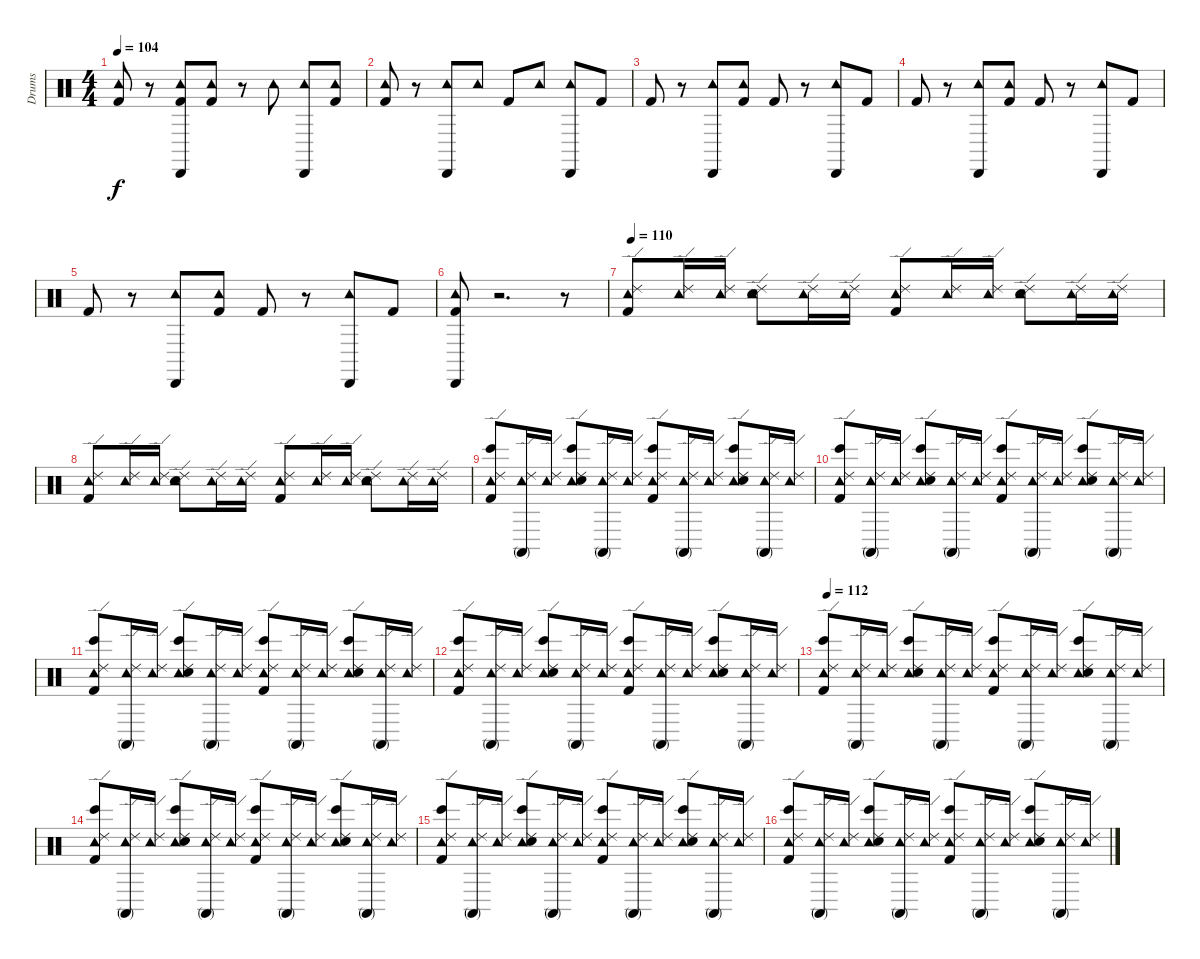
\track ("Drums" "Drums") {instrument percussion}
\staff {score}
\articulation defaults
\ts (4 4)
\tempo 104
\clef neutral
\ks c
("Kick (hit) 2" "Tambourine (hit)").8{dy f} r.8 ("Kick (hit) 2" "Cabasa (hit)" "Tambourine (hit)").8 ("Kick (hit) 2" "Tambourine (hit)").8 r.8 "Tambourine (hit)".8 ("Cabasa (hit)" "Tambourine (hit)").8 ("Kick (hit) 2" "Tambourine (hit)").8 |
("Kick (hit) 2" "Tambourine (hit)").8 r.8 ("Cabasa (hit)" "Tambourine (hit)").8 "Tambourine (hit)".8 "Kick (hit) 2".8 "Tambourine (hit)".8 ("Cabasa (hit)" "Tambourine (hit)").8 "Kick (hit) 2".8 |
"Kick (hit) 2".8 r.8 ("Tambourine (hit)" "Cabasa (hit)").8 ("Tambourine (hit)" "Kick (hit) 2").8 "Kick (hit) 2".8 r.8 ("Tambourine (hit)" "Cabasa (hit)").8 "Kick (hit) 2".8 |
"Kick (hit) 2".8 r.8 ("Tambourine (hit)" "Cabasa (hit)").8 ("Tambourine (hit)" "Kick (hit) 2").8 "Kick (hit) 2".8 r.8 ("Tambourine (hit)" "Cabasa (hit)").8 "Kick (hit) 2".8 |
"Kick (hit) 2".8 r.8 ("Tambourine (hit)" "Cabasa (hit)").8 ("Tambourine (hit)" "Kick (hit) 2").8 "Kick (hit) 2".8 r.8 ("Tambourine (hit)" "Cabasa (hit)").8 "Kick (hit) 2".8 |
("Cabasa (hit)" "Kick (hit) 2" "Tambourine (hit)").8 r.2{d} r.8 |
\tempo 110
("Ride (edge) 2" "Tambourine (hit)" "Kick (hit) 2").8 ("Ride (edge) 2" "Tambourine (hit)").16 ("Ride (edge) 2" "Tambourine (hit)").16 ("Ride (edge) 2" "Tambourine (hit)" "Snare (hit) 2").8 ("Ride (edge) 2" "Tambourine (hit)").16 ("Ride (edge) 2" "Tambourine (hit)").16 ("Ride (edge) 2" "Tambourine (hit)" "Kick (hit) 2").8 ("Ride (edge) 2" "Tambourine (hit)").16 ("Ride (edge) 2" "Tambourine (hit)").16 ("Ride (edge) 2" "Tambourine (hit)" "Snare (hit) 2").8 ("Ride (edge) 2" "Tambourine (hit)").16 ("Ride (edge) 2" "Tambourine (hit)").16 |
("Ride (edge) 2" "Tambourine (hit)" "Kick (hit) 2").8 ("Ride (edge) 2" "Tambourine (hit)").16 ("Ride (edge) 2" "Tambourine (hit)").16 ("Ride (edge) 2" "Tambourine (hit)" "Snare (hit) 2").8 ("Ride (edge) 2" "Tambourine (hit)").16 ("Ride (edge) 2" "Tambourine (hit)").16 ("Ride (edge) 2" "Tambourine (hit)" "Kick (hit) 2").8 ("Ride (edge) 2" "Tambourine (hit)").16 ("Ride (edge) 2" "Tambourine (hit)").16 ("Ride (edge) 2" "Tambourine (hit)" "Snare (hit) 2").8 ("Ride (edge) 2" "Tambourine (hit)").16 ("Ride (edge) 2" "Tambourine (hit)").16 |
("Ride (edge) 2" "Tambourine (hit)" "Kick (hit) 2" "Bongo High (hit)").8 ("Ride (edge) 2" "Tambourine (hit)" "Conga high (mute)").16 ("Ride (edge) 2" "Tambourine (hit)").16 ("Ride (edge) 2" "Tambourine (hit)" "Snare (hit) 2" "Bongo High (hit)").8 ("Ride (edge) 2" "Tambourine (hit)" "Conga high (mute)").16 ("Ride (edge) 2" "Tambourine (hit)").16 ("Ride (edge) 2" "Tambourine (hit)" "Kick (hit) 2" "Bongo High (hit)").8 ("Ride (edge) 2" "Tambourine (hit)" "Conga high (mute)").16 ("Ride (edge) 2" "Tambourine (hit)").16 ("Ride (edge) 2" "Tambourine (hit)" "Snare (hit) 2" "Bongo High (hit)").8 ("Ride (edge) 2" "Tambourine (hit)" "Conga high (mute)").16 ("Ride (edge) 2" "Tambourine (hit)").16 |
("Ride (edge) 2" "Tambourine (hit)" "Kick (hit) 2" "Bongo High (hit)").8 ("Ride (edge) 2" "Tambourine (hit)" "Conga high (mute)").16 ("Ride (edge) 2" "Tambourine (hit)").16 ("Ride (edge) 2" "Tambourine (hit)" "Snare (hit) 2" "Bongo High (hit)").8 ("Ride (edge) 2" "Tambourine (hit)" "Conga high (mute)").16 ("Ride (edge) 2" "Tambourine (hit)").16 ("Ride (edge) 2" "Tambourine (hit)" "Kick (hit) 2" "Bongo High (hit)").8 ("Ride (edge) 2" "Tambourine (hit)" "Conga high (mute)").16 ("Ride (edge) 2" "Tambourine (hit)").16 ("Ride (edge) 2" "Tambourine (hit)" "Snare (hit) 2" "Bongo High (hit)").8 ("Ride (edge) 2" "Tambourine (hit)" "Conga high (mute)").16 ("Ride (edge) 2" "Tambourine (hit)").16 |
("Ride (edge) 2" "Tambourine (hit)" "Kick (hit) 2" "Bongo High (hit)").8 ("Ride (edge) 2" "Tambourine (hit)" "Conga high (mute)").16 ("Ride (edge) 2" "Tambourine (hit)").16 ("Ride (edge) 2" "Tambourine (hit)" "Snare (hit) 2" "Bongo High (hit)").8 ("Ride (edge) 2" "Tambourine (hit)" "Conga high (mute)").16 ("Ride (edge) 2" "Tambourine (hit)").16 ("Ride (edge) 2" "Tambourine (hit)" "Kick (hit) 2" "Bongo High (hit)").8 ("Ride (edge) 2" "Tambourine (hit)" "Conga high (mute)").16 ("Ride (edge) 2" "Tambourine (hit)").16 ("Ride (edge) 2" "Tambourine (hit)" "Snare (hit) 2" "Bongo High (hit)").8 ("Ride (edge) 2" "Tambourine (hit)" "Conga high (mute)").16 ("Ride (edge) 2" "Tambourine (hit)").16 |
("Ride (edge) 2" "Tambourine (hit)" "Kick (hit) 2" "Bongo High (hit)").8 ("Ride (edge) 2" "Tambourine (hit)" "Conga high (mute)").16 ("Ride (edge) 2" "Tambourine (hit)").16 ("Ride (edge) 2" "Tambourine (hit)" "Snare (hit) 2" "Bongo High (hit)").8 ("Ride (edge) 2" "Tambourine (hit)" "Conga high (mute)").16 ("Ride (edge) 2" "Tambourine (hit)").16 ("Ride (edge) 2" "Tambourine (hit)" "Kick (hit) 2" "Bongo High (hit)").8 ("Ride (edge) 2" "Tambourine (hit)" "Conga high (mute)").16 ("Ride (edge) 2" "Tambourine (hit)").16 ("Ride (edge) 2" "Tambourine (hit)" "Snare (hit) 2" "Bongo High (hit)").8 ("Ride (edge) 2" "Tambourine (hit)" "Conga high (mute)").16 ("Ride (edge) 2" "Tambourine (hit)").16 |
\tempo 112
("Ride (edge) 2" "Tambourine (hit)" "Kick (hit) 2" "Bongo High (hit)").8 ("Ride (edge) 2" "Tambourine (hit)" "Conga high (mute)").16 ("Ride (edge) 2" "Tambourine (hit)").16 ("Ride (edge) 2" "Tambourine (hit)" "Snare (hit) 2" "Bongo High (hit)").8 ("Ride (edge) 2" "Tambourine (hit)" "Conga high (mute)").16 ("Ride (edge) 2" "Tambourine (hit)").16 ("Ride (edge) 2" "Tambourine (hit)" "Kick (hit) 2" "Bongo High (hit)").8 ("Ride (edge) 2" "Tambourine (hit)" "Conga high (mute)").16 ("Ride (edge) 2" "Tambourine (hit)").16 ("Ride (edge) 2" "Tambourine (hit)" "Snare (hit) 2" "Bongo High (hit)").8 ("Ride (edge) 2" "Tambourine (hit)" "Conga high (mute)").16 ("Ride (edge) 2" "Tambourine (hit)").16 |
("Ride (edge) 2" "Tambourine (hit)" "Kick (hit) 2" "Bongo High (hit)").8 ("Ride (edge) 2" "Tambourine (hit)" "Conga high (mute)").16 ("Ride (edge) 2" "Tambourine (hit)").16 ("Ride (edge) 2" "Tambourine (hit)" "Snare (hit) 2" "Bongo High (hit)").8 ("Ride (edge) 2" "Tambourine (hit)" "Conga high (mute)").16 ("Ride (edge) 2" "Tambourine (hit)").16 ("Ride (edge) 2" "Tambourine (hit)" "Kick (hit) 2" "Bongo High (hit)").8 ("Ride (edge) 2" "Tambourine (hit)" "Conga high (mute)").16 ("Ride (edge) 2" "Tambourine (hit)").16 ("Ride (edge) 2" "Tambourine (hit)" "Snare (hit) 2" "Bongo High (hit)").8 ("Ride (edge) 2" "Tambourine (hit)" "Conga high (mute)").16 ("Ride (edge) 2" "Tambourine (hit)").16 |
("Ride (edge) 2" "Tambourine (hit)" "Kick (hit) 2" "Bongo High (hit)").8 ("Ride (edge) 2" "Tambourine (hit)" "Conga high (mute)").16 ("Ride (edge) 2" "Tambourine (hit)").16 ("Ride (edge) 2" "Tambourine (hit)" "Snare (hit) 2" "Bongo High (hit)").8 ("Ride (edge) 2" "Tambourine (hit)" "Conga high (mute)").16 ("Ride (edge) 2" "Tambourine (hit)").16 ("Ride (edge) 2" "Tambourine (hit)" "Kick (hit) 2" "Bongo High (hit)").8 ("Ride (edge) 2" "Tambourine (hit)" "Conga high (mute)").16 ("Ride (edge) 2" "Tambourine (hit)").16 ("Ride (edge) 2" "Tambourine (hit)" "Snare (hit) 2" "Bongo High (hit)").8 ("Ride (edge) 2" "Tambourine (hit)" "Conga high (mute)").16 ("Ride (edge) 2" "Tambourine (hit)").16 |
("Ride (edge) 2" "Tambourine (hit)" "Kick (hit) 2" "Bongo High (hit)").8 ("Ride (edge) 2" "Tambourine (hit)" "Conga high (mute)").16 ("Ride (edge) 2" "Tambourine (hit)").16 ("Ride (edge) 2" "Tambourine (hit)" "Snare (hit) 2" "Bongo High (hit)").8 ("Ride (edge) 2" "Tambourine (hit)" "Conga high (mute)").16 ("Ride (edge) 2" "Tambourine (hit)").16 ("Ride (edge) 2" "Tambourine (hit)" "Kick (hit) 2" "Bongo High (hit)").8 ("Ride (edge) 2" "Tambourine (hit)" "Conga high (mute)").16 ("Ride (edge) 2" "Tambourine (hit)").16 ("Ride (edge) 2" "Tambourine (hit)" "Snare (hit) 2" "Bongo High (hit)").8 ("Ride (edge) 2" "Tambourine (hit)" "Conga high (mute)").16 ("Ride (edge) 2" "Tambourine (hit)").16
